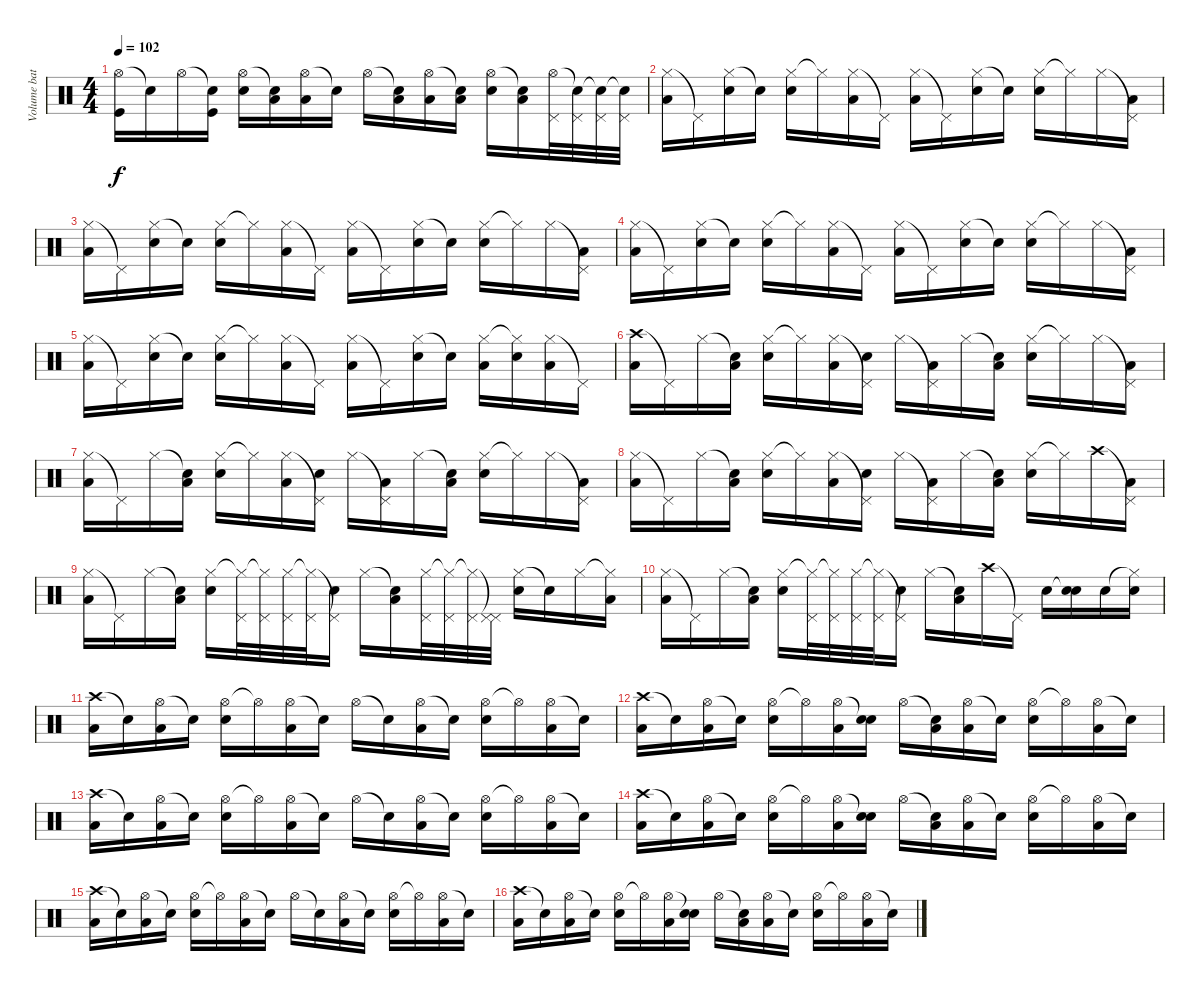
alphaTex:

\track ("Volume batera " "Volume bat") {instrument percussion}
\staff {score}
\articulation defaults
\ts (4 4)
\tempo 102
\clef neutral
\ks c
("Hi-Hat (open)" "Kick (hit)").16{dy f} "Snare (hit)"{t}.16 "Hi-Hat (open)".16 ("Snare (hit)"{t} "Kick (hit)").16 ("Hi-Hat (open)" "Snare (hit) 2").16 ("Snare (hit)"{t} "Low Tom (hit)").16 ("Hi-Hat (open)" "Low Tom (hit)").16 "Snare (hit)"{t}.16 "Hi-Hat (open)".16 ("Snare (hit)"{t} "Low Tom (hit)").16 ("Hi-Hat (open)" "Low Tom (hit)").16 ("Snare (hit)"{t} "Low Tom (hit)").16 ("Hi-Hat (open)" "Snare (hit) 2").16 ("Snare (hit)"{t} "Low Tom (hit)").16 ("Hi-Hat (open)" "Pedal Hi-Hat (hit)").32 ("Snare (hit)"{t} "Pedal Hi-Hat (hit)").32 ("Snare (hit)"{t} "Pedal Hi-Hat (hit)").32 ("Snare (hit)"{t} "Pedal Hi-Hat (hit)").32 |
("Hi-Hat (closed)" "Low Tom (hit)").16 "Pedal Hi-Hat (hit)"{t}.16 ("Hi-Hat (closed)" "Snare (hit) 2").16 "Snare (hit)"{t}.16 ("Hi-Hat (closed)" "Snare (hit) 2").16 "Hi-Hat (closed)"{t}.16 ("Hi-Hat (closed)" "Low Tom (hit)").16 "Pedal Hi-Hat (hit)"{t}.16 ("Hi-Hat (closed)" "Low Tom (hit)").16 "Pedal Hi-Hat (hit)"{t}.16 ("Hi-Hat (closed)" "Snare (hit) 2").16 "Snare (hit)"{t}.16 ("Hi-Hat (closed)" "Snare (hit) 2").16 "Hi-Hat (closed)"{t}.16 "Hi-Hat (closed)".16 ("Pedal Hi-Hat (hit)"{t} "Low Tom (hit)").16 |
("Hi-Hat (closed)" "Low Tom (hit)").16 "Pedal Hi-Hat (hit)"{t}.16 ("Hi-Hat (closed)" "Snare (hit) 2").16 "Snare (hit)"{t}.16 ("Hi-Hat (closed)" "Snare (hit) 2").16 "Hi-Hat (closed)"{t}.16 ("Hi-Hat (closed)" "Low Tom (hit)").16 "Pedal Hi-Hat (hit)"{t}.16 ("Hi-Hat (closed)" "Low Tom (hit)").16 "Pedal Hi-Hat (hit)"{t}.16 ("Hi-Hat (closed)" "Snare (hit) 2").16 "Snare (hit)"{t}.16 ("Hi-Hat (closed)" "Snare (hit) 2").16 "Hi-Hat (closed)"{t}.16 "Hi-Hat (closed)".16 ("Pedal Hi-Hat (hit)"{t} "Low Tom (hit)").16 |
("Hi-Hat (closed)" "Low Tom (hit)").16 "Pedal Hi-Hat (hit)"{t}.16 ("Hi-Hat (closed)" "Snare (hit) 2").16 "Snare (hit)"{t}.16 ("Hi-Hat (closed)" "Snare (hit) 2").16 "Hi-Hat (closed)"{t}.16 ("Hi-Hat (closed)" "Low Tom (hit)").16 "Pedal Hi-Hat (hit)"{t}.16 ("Hi-Hat (closed)" "Low Tom (hit)").16 "Pedal Hi-Hat (hit)"{t}.16 ("Hi-Hat (closed)" "Snare (hit) 2").16 "Snare (hit)"{t}.16 ("Hi-Hat (closed)" "Snare (hit) 2").16 "Hi-Hat (closed)"{t}.16 "Hi-Hat (closed)".16 ("Pedal Hi-Hat (hit)"{t} "Low Tom (hit)").16 |
("Hi-Hat (closed)" "Low Tom (hit)").16 "Pedal Hi-Hat (hit)"{t}.16 ("Hi-Hat (closed)" "Snare (hit) 2").16 "Snare (hit)"{t}.16 ("Hi-Hat (closed)" "Snare (hit) 2").16 "Hi-Hat (closed)"{t}.16 ("Hi-Hat (closed)" "Low Tom (hit)").16 "Pedal Hi-Hat (hit)"{t}.16 ("Hi-Hat (closed)" "Low Tom (hit)").16 "Pedal Hi-Hat (hit)"{t}.16 ("Hi-Hat (closed)" "Snare (hit) 2").16 "Snare (hit)"{t}.16 ("Hi-Hat (closed)" "Low Tom (hit)").16 ("Hi-Hat (closed)"{t} "Snare (hit) 2").16 ("Hi-Hat (closed)" "Low Tom (hit)").16 "Pedal Hi-Hat (hit)"{t}.16 |
("Crash high (hit)" "Low Tom (hit)").16 "Pedal Hi-Hat (hit)"{t}.16 "Hi-Hat (closed)".16 ("Snare (hit)"{t} "Low Tom (hit)").16 ("Hi-Hat (closed)" "Snare (hit) 2").16 "Hi-Hat (closed)"{t}.16 ("Hi-Hat (closed)" "Low Tom (hit)").16 ("Pedal Hi-Hat (hit)"{t} "Snare (hit) 2").16 "Hi-Hat (closed)".16 ("Pedal Hi-Hat (hit)"{t} "Low Tom (hit)").16 "Hi-Hat (closed)".16 ("Snare (hit)"{t} "Low Tom (hit)").16 ("Hi-Hat (closed)" "Snare (hit) 2").16 "Hi-Hat (closed)"{t}.16 "Hi-Hat (closed)".16 ("Pedal Hi-Hat (hit)"{t} "Low Tom (hit)").16 |
("Hi-Hat (closed)" "Low Tom (hit)").16 "Pedal Hi-Hat (hit)"{t}.16 "Hi-Hat (closed)".16 ("Snare (hit)"{t} "Low Tom (hit)").16 ("Hi-Hat (closed)" "Snare (hit) 2").16 "Hi-Hat (closed)"{t}.16 ("Hi-Hat (closed)" "Low Tom (hit)").16 ("Pedal Hi-Hat (hit)"{t} "Snare (hit) 2").16 "Hi-Hat (closed)".16 ("Pedal Hi-Hat (hit)"{t} "Low Tom (hit)").16 "Hi-Hat (closed)".16 ("Snare (hit)"{t} "Low Tom (hit)").16 ("Hi-Hat (closed)" "Snare (hit) 2").16 "Hi-Hat (closed)"{t}.16 "Hi-Hat (closed)".16 ("Pedal Hi-Hat (hit)"{t} "Low Tom (hit)").16 |
("Hi-Hat (closed)" "Low Tom (hit)").16 "Pedal Hi-Hat (hit)"{t}.16 "Hi-Hat (closed)".16 ("Snare (hit)"{t} "Low Tom (hit)").16 ("Hi-Hat (closed)" "Snare (hit) 2").16 "Hi-Hat (closed)"{t}.16 ("Hi-Hat (closed)" "Low Tom (hit)").16 ("Pedal Hi-Hat (hit)"{t} "Snare (hit) 2").16 "Hi-Hat (closed)".16 ("Pedal Hi-Hat (hit)"{t} "Low Tom (hit)").16 "Hi-Hat (closed)".16 ("Snare (hit)"{t} "Low Tom (hit)").16 ("Hi-Hat (closed)" "Snare (hit) 2").16 "Hi-Hat (closed)"{t}.16 "Crash high (hit)".16 ("Pedal Hi-Hat (hit)"{t} "Low Tom (hit)").16 |
("Hi-Hat (closed)" "Low Tom (hit)").16 "Pedal Hi-Hat (hit)"{t}.16 "Hi-Hat (closed)".16 ("Snare (hit)"{t} "Low Tom (hit)").16 ("Hi-Hat (closed)" "Snare (hit) 2").16 ("Hi-Hat (closed)"{t} "Pedal Hi-Hat (hit)").32 ("Hi-Hat (closed)"{t} "Pedal Hi-Hat (hit)").32 ("Hi-Hat (closed)" "Pedal Hi-Hat (hit)").32 ("Hi-Hat (closed)"{t} "Pedal Hi-Hat (hit)").32 ("Pedal Hi-Hat (hit)"{t} "Snare (hit) 2").16 "Hi-Hat (closed)".16 ("Snare (hit)"{t} "Low Tom (hit)").16 ("Hi-Hat (closed)" "Pedal Hi-Hat (hit)").32 ("Hi-Hat (closed)"{t} "Pedal Hi-Hat (hit)").32 ("Hi-Hat (closed)"{t} "Pedal Hi-Hat (hit)").32 ("Pedal Hi-Hat (hit)"{t} "Pedal Hi-Hat (hit)").32 ("Hi-Hat (closed)" "Snare (hit) 2").16 "Snare (hit)"{t}.16 "Hi-Hat (closed)".16 ("Hi-Hat (closed)"{t} "Low Tom (hit)").16 |
("Hi-Hat (closed)" "Low Tom (hit)").16 "Pedal Hi-Hat (hit)"{t}.16 "Hi-Hat (closed)".16 ("Snare (hit)"{t} "Low Tom (hit)").16 ("Hi-Hat (closed)" "Snare (hit) 2").16 ("Hi-Hat (closed)"{t} "Pedal Hi-Hat (hit)").32 ("Hi-Hat (closed)"{t} "Pedal Hi-Hat (hit)").32 ("Hi-Hat (closed)" "Pedal Hi-Hat (hit)").32 ("Hi-Hat (closed)"{t} "Pedal Hi-Hat (hit)").32 ("Pedal Hi-Hat (hit)"{t} "Snare (hit) 2").16 "Hi-Hat (closed)".16 ("Snare (hit)"{t} "Low Tom (hit)").16 "Crash high (hit)".16 "Pedal Hi-Hat (hit)"{t}.16 "Snare (hit) 2".16 ("Snare (hit)"{t} "Snare (hit) 2").16 "Snare (hit) 2".16 ("Hi-Hat (closed)"{t} "Snare (hit) 2").16 |
("Crash high (hit)" "Low Tom (hit)").16 "Snare (hit)"{t}.16 ("Hi-Hat (open)" "Low Tom (hit)").16 "Snare (hit)"{t}.16 ("Hi-Hat (open)" "Snare (hit) 2").16 "Hi-Hat (open)"{t}.16 ("Hi-Hat (open)" "Low Tom (hit)").16 "Snare (hit)"{t}.16 "Hi-Hat (open)".16 "Snare (hit)"{t}.16 ("Hi-Hat (open)" "Low Tom (hit)").16 "Snare (hit)"{t}.16 ("Hi-Hat (open)" "Snare (hit) 2").16 "Hi-Hat (open)"{t}.16 ("Hi-Hat (open)" "Low Tom (hit)").16 "Snare (hit)"{t}.16 |
("Crash high (hit)" "Low Tom (hit)").16 "Snare (hit)"{t}.16 ("Hi-Hat (open)" "Low Tom (hit)").16 "Snare (hit)"{t}.16 ("Hi-Hat (open)" "Snare (hit) 2").16 "Hi-Hat (open)"{t}.16 ("Hi-Hat (open)" "Low Tom (hit)").16 ("Snare (hit)"{t} "Snare (hit) 2").16 "Hi-Hat (open)".16 ("Snare (hit)"{t} "Low Tom (hit)").16 ("Hi-Hat (open)" "Low Tom (hit)").16 "Snare (hit)"{t}.16 ("Hi-Hat (open)" "Snare (hit) 2").16 "Hi-Hat (open)"{t}.16 ("Hi-Hat (open)" "Low Tom (hit)").16 "Snare (hit)"{t}.16 |
("Crash high (hit)" "Low Tom (hit)").16 "Snare (hit)"{t}.16 ("Hi-Hat (open)" "Low Tom (hit)").16 "Snare (hit)"{t}.16 ("Hi-Hat (open)" "Snare (hit) 2").16 "Hi-Hat (open)"{t}.16 ("Hi-Hat (open)" "Low Tom (hit)").16 "Snare (hit)"{t}.16 "Hi-Hat (open)".16 "Snare (hit)"{t}.16 ("Hi-Hat (open)" "Low Tom (hit)").16 "Snare (hit)"{t}.16 ("Hi-Hat (open)" "Snare (hit) 2").16 "Hi-Hat (open)"{t}.16 ("Hi-Hat (open)" "Low Tom (hit)").16 "Snare (hit)"{t}.16 |
("Crash high (hit)" "Low Tom (hit)").16 "Snare (hit)"{t}.16 ("Hi-Hat (open)" "Low Tom (hit)").16 "Snare (hit)"{t}.16 ("Hi-Hat (open)" "Snare (hit) 2").16 "Hi-Hat (open)"{t}.16 ("Hi-Hat (open)" "Low Tom (hit)").16 ("Snare (hit)"{t} "Snare (hit) 2").16 "Hi-Hat (open)".16 ("Snare (hit)"{t} "Low Tom (hit)").16 ("Hi-Hat (open)" "Low Tom (hit)").16 "Snare (hit)"{t}.16 ("Hi-Hat (open)" "Snare (hit) 2").16 "Hi-Hat (open)"{t}.16 ("Hi-Hat (open)" "Low Tom (hit)").16 "Snare (hit)"{t}.16 |
("Crash high (hit)" "Low Tom (hit)").16 "Snare (hit)"{t}.16 ("Hi-Hat (open)" "Low Tom (hit)").16 "Snare (hit)"{t}.16 ("Hi-Hat (open)" "Snare (hit) 2").16 "Hi-Hat (open)"{t}.16 ("Hi-Hat (open)" "Low Tom (hit)").16 "Snare (hit)"{t}.16 "Hi-Hat (open)".16 "Snare (hit)"{t}.16 ("Hi-Hat (open)" "Low Tom (hit)").16 "Snare (hit)"{t}.16 ("Hi-Hat (open)" "Snare (hit) 2").16 "Hi-Hat (open)"{t}.16 ("Hi-Hat (open)" "Low Tom (hit)").16 "Snare (hit)"{t}.16 |
("Crash high (hit)" "Low Tom (hit)").16 "Snare (hit)"{t}.16 ("Hi-Hat (open)" "Low Tom (hit)").16 "Snare (hit)"{t}.16 ("Hi-Hat (open)" "Snare (hit) 2").16 "Hi-Hat (open)"{t}.16 ("Hi-Hat (open)" "Low Tom (hit)").16 ("Snare (hit)"{t} "Snare (hit) 2").16 "Hi-Hat (open)".16 ("Snare (hit)"{t} "Low Tom (hit)").16 ("Hi-Hat (open)" "Low Tom (hit)").16 "Snare (hit)"{t}.16 ("Hi-Hat (open)" "Snare (hit) 2").16 "Hi-Hat (open)"{t}.16 ("Hi-Hat (open)" "Low Tom (hit)").16 "Snare (hit)"{t}.16
